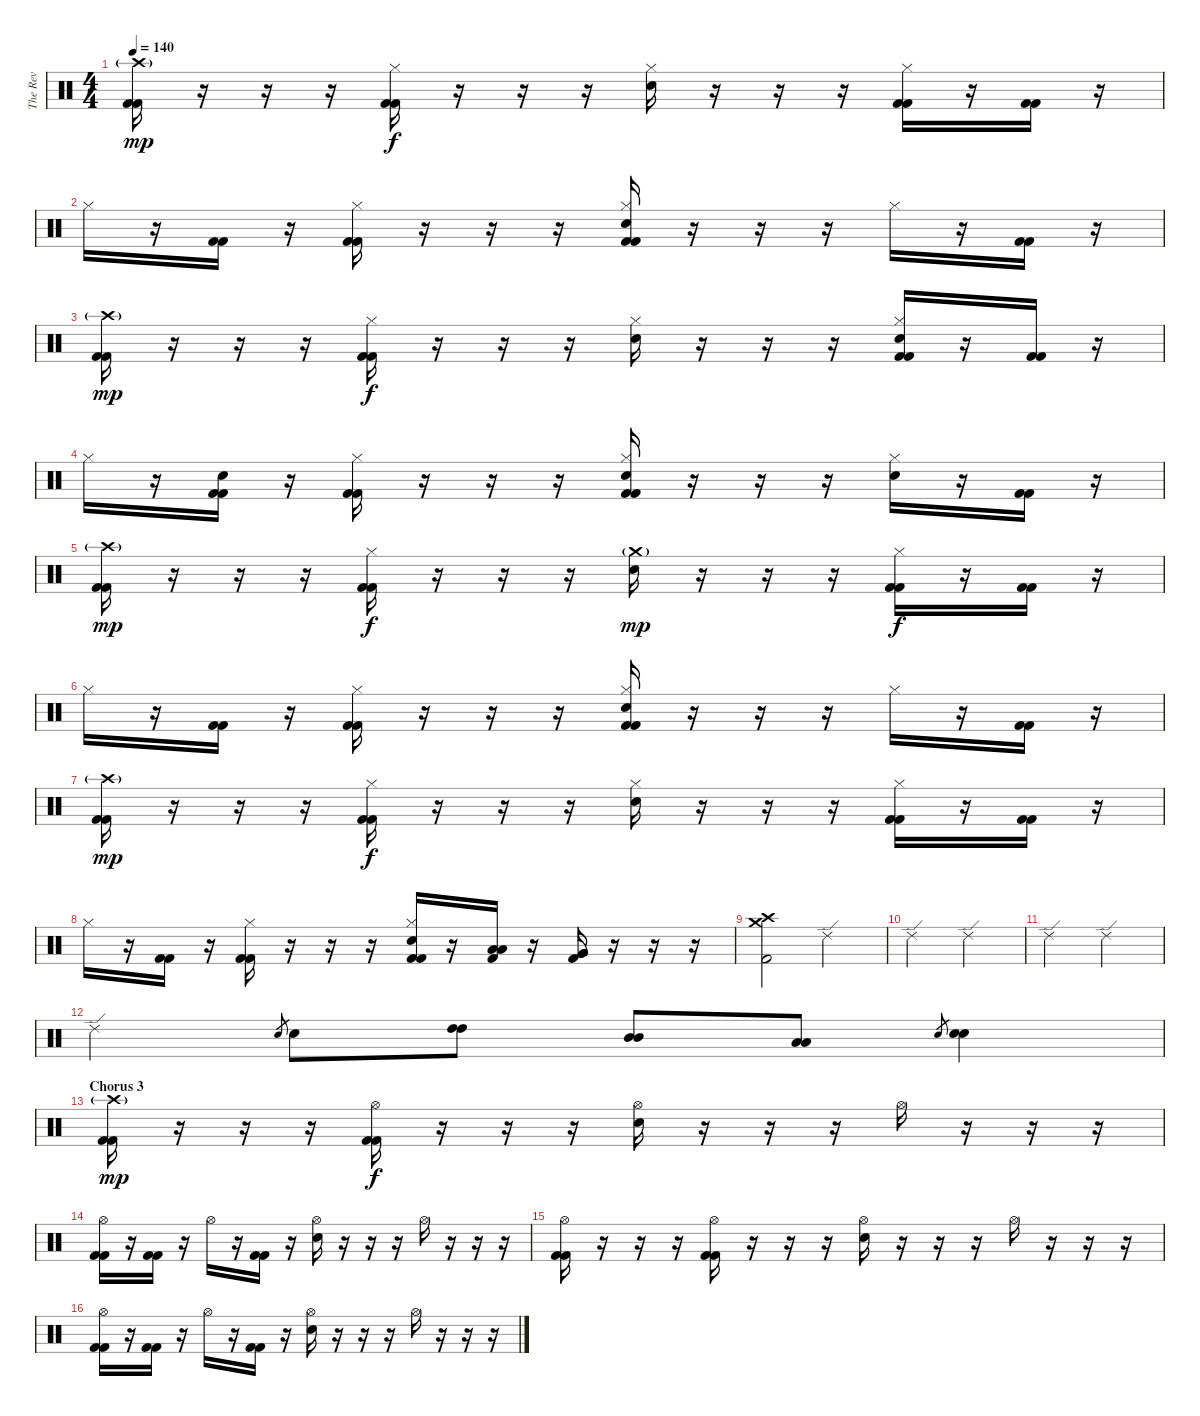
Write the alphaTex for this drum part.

\track ("The Rev" "The Rev") {instrument percussion}
\staff {score}
\articulation defaults
\ts (4 4)
\tempo 140
\clef neutral
\ks c
("Crash high (hit)"{g} "Kick (hit) 2" "Kick (hit) 2").16{dy mp} r.16 r.16 r.16 ("Hi-Hat (closed)" "Kick (hit) 2" "Kick (hit) 2").16{dy f} r.16 r.16 r.16 ("Hi-Hat (closed)" "Electric Snare (hit)").16 r.16 r.16 r.16 ("Hi-Hat (closed)" "Kick (hit) 2" "Kick (hit) 2").16 r.16 ("Kick (hit) 2" "Kick (hit) 2").16 r.16 |
"Hi-Hat (closed)".16 r.16 ("Kick (hit) 2" "Kick (hit) 2").16 r.16 ("Hi-Hat (closed)" "Kick (hit) 2" "Kick (hit) 2").16 r.16 r.16 r.16 ("Hi-Hat (closed)" "Electric Snare (hit)" "Kick (hit) 2" "Kick (hit) 2").16 r.16 r.16 r.16 "Hi-Hat (closed)".16 r.16 ("Kick (hit) 2" "Kick (hit) 2").16 r.16 |
("Crash high (hit)"{g} "Kick (hit) 2" "Kick (hit) 2").16{dy mp} r.16 r.16 r.16 ("Hi-Hat (closed)" "Kick (hit) 2" "Kick (hit) 2").16{dy f} r.16 r.16 r.16 ("Hi-Hat (closed)" "Electric Snare (hit)").16 r.16 r.16 r.16 ("Hi-Hat (closed)" "Electric Snare (hit)" "Kick (hit) 2" "Kick (hit) 2").16 r.16 ("Kick (hit) 2" "Kick (hit) 2").16 r.16 |
"Hi-Hat (closed)".16 r.16 ("Electric Snare (hit)" "Kick (hit) 2" "Kick (hit) 2").16 r.16 ("Hi-Hat (closed)" "Kick (hit) 2" "Kick (hit) 2").16 r.16 r.16 r.16 ("Hi-Hat (closed)" "Electric Snare (hit)" "Kick (hit) 2" "Kick (hit) 2").16 r.16 r.16 r.16 ("Hi-Hat (closed)" "Electric Snare (hit)").16 r.16 ("Kick (hit) 2" "Kick (hit) 2").16 r.16 |
("Crash high (hit)"{g} "Kick (hit) 2" "Kick (hit) 2").16{dy mp} r.16 r.16 r.16 ("Hi-Hat (closed)" "Kick (hit) 2" "Kick (hit) 2").16{dy f} r.16 r.16 r.16 ("Crash medium (hit)"{g} "Electric Snare (hit)").16{dy mp} r.16 r.16 r.16 ("Hi-Hat (closed)" "Kick (hit) 2" "Kick (hit) 2").16{dy f} r.16 ("Kick (hit) 2" "Kick (hit) 2").16 r.16 |
"Hi-Hat (closed)".16 r.16 ("Kick (hit) 2" "Kick (hit) 2").16 r.16 ("Hi-Hat (closed)" "Kick (hit) 2" "Kick (hit) 2").16 r.16 r.16 r.16 ("Hi-Hat (closed)" "Electric Snare (hit)" "Kick (hit) 2" "Kick (hit) 2").16 r.16 r.16 r.16 "Hi-Hat (closed)".16 r.16 ("Kick (hit) 2" "Kick (hit) 2").16 r.16 |
("Crash high (hit)"{g} "Kick (hit) 2" "Kick (hit) 2").16{dy mp} r.16 r.16 r.16 ("Hi-Hat (closed)" "Kick (hit) 2" "Kick (hit) 2").16{dy f} r.16 r.16 r.16 ("Hi-Hat (closed)" "Electric Snare (hit)").16 r.16 r.16 r.16 ("Hi-Hat (closed)" "Kick (hit) 2" "Kick (hit) 2").16 r.16 ("Kick (hit) 2" "Kick (hit) 2").16 r.16 |
"Hi-Hat (closed)".16 r.16 ("Kick (hit) 2" "Kick (hit) 2").16 r.16 ("Hi-Hat (closed)" "Kick (hit) 2" "Kick (hit) 2").16 r.16 r.16 r.16 ("Hi-Hat (closed)" "Electric Snare (hit)" "Kick (hit) 2" "Kick (hit) 2").16 r.16 ("Low Tom (hit)" "Low Tom (hit)" "Kick (hit) 2").16 r.16 ("Very Low Tom (hit)" "Very Low Tom (hit)" "Kick (hit) 2").16 r.16 r.16 r.16 |
("Crash medium (hit)" "Crash high (hit)" "Kick (hit) 2").2 "Ride (edge) 2".2 |
"Ride (edge) 2".2 "Ride (edge) 2".2 |
"Ride (edge) 2".2 "Ride (edge) 2".2 |
"Ride (edge) 2".4 "Electric Snare (hit)".8{gr} "Electric Snare (hit)".8 ("High Tom (hit)" "High Tom (hit)").8 ("Mid Tom (hit)" "Mid Tom (hit)").8 ("Low Tom (hit)" "Low Tom (hit)").8 "Electric Snare (hit)".8{gr} ("Electric Snare (hit)" "Electric Snare (hit)").4 |
\section ("" "Chorus 3")
("Crash high (hit)"{g} "Kick (hit) 2" "Kick (hit) 2").16{dy mp} r.16 r.16 r.16 ("Hi-Hat (open)" "Kick (hit) 2" "Kick (hit) 2").16{dy f} r.16 r.16 r.16 ("Hi-Hat (open)" "Electric Snare (hit)").16 r.16 r.16 r.16 "Hi-Hat (open)".16 r.16 r.16 r.16 |
("Hi-Hat (open)" "Kick (hit) 2" "Kick (hit) 2").16 r.16 ("Kick (hit) 2" "Kick (hit) 2").16 r.16 "Hi-Hat (open)".16 r.16 ("Kick (hit) 2" "Kick (hit) 2").16 r.16 ("Hi-Hat (open)" "Electric Snare (hit)").16 r.16 r.16 r.16 "Hi-Hat (open)".16 r.16 r.16 r.16 |
("Hi-Hat (open)" "Kick (hit) 2" "Kick (hit) 2").16 r.16 r.16 r.16 ("Hi-Hat (open)" "Kick (hit) 2" "Kick (hit) 2").16 r.16 r.16 r.16 ("Hi-Hat (open)" "Electric Snare (hit)").16 r.16 r.16 r.16 "Hi-Hat (open)".16 r.16 r.16 r.16 |
("Hi-Hat (open)" "Kick (hit) 2" "Kick (hit) 2").16 r.16 ("Kick (hit) 2" "Kick (hit) 2").16 r.16 "Hi-Hat (open)".16 r.16 ("Kick (hit) 2" "Kick (hit) 2").16 r.16 ("Hi-Hat (open)" "Electric Snare (hit)").16 r.16 r.16 r.16 "Hi-Hat (open)".16 r.16 r.16 r.16
